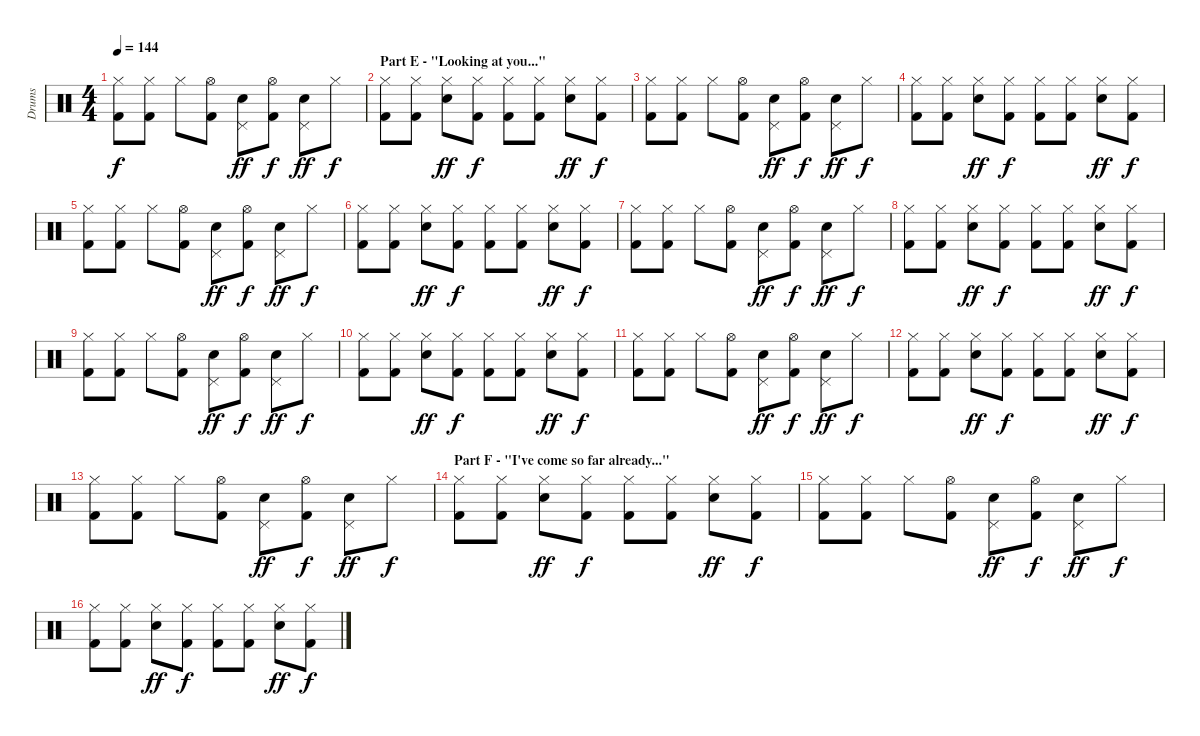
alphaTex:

\track ("Drums" "Drums") {instrument percussion}
\staff {score}
\articulation defaults
\ts (4 4)
\tempo 144
\clef neutral
\ks c
("Hi-Hat (closed)" "Kick (hit) 2").8{dy f} ("Hi-Hat (closed)" "Kick (hit) 2").8 "Hi-Hat (closed)".8 ("Hi-Hat (open)" "Kick (hit) 2").8 ("Pedal Hi-Hat (hit)" "Electric Snare (hit)").8{dy ff} ("Hi-Hat (open)" "Kick (hit) 2").8{dy f} ("Pedal Hi-Hat (hit)" "Electric Snare (hit)").8{dy ff} "Hi-Hat (closed)".8{dy f} |
\section ("" "Part E - \"Looking at you...\"")
("Hi-Hat (closed)" "Kick (hit) 2").8 ("Hi-Hat (closed)" "Kick (hit) 2").8 ("Hi-Hat (closed)" "Electric Snare (hit)").8{dy ff} ("Hi-Hat (closed)" "Kick (hit) 2").8{dy f} ("Hi-Hat (closed)" "Kick (hit) 2").8 ("Hi-Hat (closed)" "Kick (hit) 2").8 ("Hi-Hat (closed)" "Electric Snare (hit)").8{dy ff} ("Hi-Hat (closed)" "Kick (hit) 2").8{dy f} |
("Hi-Hat (closed)" "Kick (hit) 2").8 ("Hi-Hat (closed)" "Kick (hit) 2").8 "Hi-Hat (closed)".8 ("Hi-Hat (open)" "Kick (hit) 2").8 ("Pedal Hi-Hat (hit)" "Electric Snare (hit)").8{dy ff} ("Hi-Hat (open)" "Kick (hit) 2").8{dy f} ("Pedal Hi-Hat (hit)" "Electric Snare (hit)").8{dy ff} "Hi-Hat (closed)".8{dy f} |
("Hi-Hat (closed)" "Kick (hit) 2").8 ("Hi-Hat (closed)" "Kick (hit) 2").8 ("Hi-Hat (closed)" "Electric Snare (hit)").8{dy ff} ("Hi-Hat (closed)" "Kick (hit) 2").8{dy f} ("Hi-Hat (closed)" "Kick (hit) 2").8 ("Hi-Hat (closed)" "Kick (hit) 2").8 ("Hi-Hat (closed)" "Electric Snare (hit)").8{dy ff} ("Hi-Hat (closed)" "Kick (hit) 2").8{dy f} |
("Hi-Hat (closed)" "Kick (hit) 2").8 ("Hi-Hat (closed)" "Kick (hit) 2").8 "Hi-Hat (closed)".8 ("Hi-Hat (open)" "Kick (hit) 2").8 ("Pedal Hi-Hat (hit)" "Electric Snare (hit)").8{dy ff} ("Hi-Hat (open)" "Kick (hit) 2").8{dy f} ("Pedal Hi-Hat (hit)" "Electric Snare (hit)").8{dy ff} "Hi-Hat (closed)".8{dy f} |
("Hi-Hat (closed)" "Kick (hit) 2").8 ("Hi-Hat (closed)" "Kick (hit) 2").8 ("Hi-Hat (closed)" "Electric Snare (hit)").8{dy ff} ("Hi-Hat (closed)" "Kick (hit) 2").8{dy f} ("Hi-Hat (closed)" "Kick (hit) 2").8 ("Hi-Hat (closed)" "Kick (hit) 2").8 ("Hi-Hat (closed)" "Electric Snare (hit)").8{dy ff} ("Hi-Hat (closed)" "Kick (hit) 2").8{dy f} |
("Hi-Hat (closed)" "Kick (hit) 2").8 ("Hi-Hat (closed)" "Kick (hit) 2").8 "Hi-Hat (closed)".8 ("Hi-Hat (open)" "Kick (hit) 2").8 ("Pedal Hi-Hat (hit)" "Electric Snare (hit)").8{dy ff} ("Hi-Hat (open)" "Kick (hit) 2").8{dy f} ("Pedal Hi-Hat (hit)" "Electric Snare (hit)").8{dy ff} "Hi-Hat (closed)".8{dy f} |
("Hi-Hat (closed)" "Kick (hit) 2").8 ("Hi-Hat (closed)" "Kick (hit) 2").8 ("Hi-Hat (closed)" "Electric Snare (hit)").8{dy ff} ("Hi-Hat (closed)" "Kick (hit) 2").8{dy f} ("Hi-Hat (closed)" "Kick (hit) 2").8 ("Hi-Hat (closed)" "Kick (hit) 2").8 ("Hi-Hat (closed)" "Electric Snare (hit)").8{dy ff} ("Hi-Hat (closed)" "Kick (hit) 2").8{dy f} |
("Hi-Hat (closed)" "Kick (hit) 2").8 ("Hi-Hat (closed)" "Kick (hit) 2").8 "Hi-Hat (closed)".8 ("Hi-Hat (open)" "Kick (hit) 2").8 ("Pedal Hi-Hat (hit)" "Electric Snare (hit)").8{dy ff} ("Hi-Hat (open)" "Kick (hit) 2").8{dy f} ("Pedal Hi-Hat (hit)" "Electric Snare (hit)").8{dy ff} "Hi-Hat (closed)".8{dy f} |
("Hi-Hat (closed)" "Kick (hit) 2").8 ("Hi-Hat (closed)" "Kick (hit) 2").8 ("Hi-Hat (closed)" "Electric Snare (hit)").8{dy ff} ("Hi-Hat (closed)" "Kick (hit) 2").8{dy f} ("Hi-Hat (closed)" "Kick (hit) 2").8 ("Hi-Hat (closed)" "Kick (hit) 2").8 ("Hi-Hat (closed)" "Electric Snare (hit)").8{dy ff} ("Hi-Hat (closed)" "Kick (hit) 2").8{dy f} |
("Hi-Hat (closed)" "Kick (hit) 2").8 ("Hi-Hat (closed)" "Kick (hit) 2").8 "Hi-Hat (closed)".8 ("Hi-Hat (open)" "Kick (hit) 2").8 ("Pedal Hi-Hat (hit)" "Electric Snare (hit)").8{dy ff} ("Hi-Hat (open)" "Kick (hit) 2").8{dy f} ("Pedal Hi-Hat (hit)" "Electric Snare (hit)").8{dy ff} "Hi-Hat (closed)".8{dy f} |
("Hi-Hat (closed)" "Kick (hit) 2").8 ("Hi-Hat (closed)" "Kick (hit) 2").8 ("Hi-Hat (closed)" "Electric Snare (hit)").8{dy ff} ("Hi-Hat (closed)" "Kick (hit) 2").8{dy f} ("Hi-Hat (closed)" "Kick (hit) 2").8 ("Hi-Hat (closed)" "Kick (hit) 2").8 ("Hi-Hat (closed)" "Electric Snare (hit)").8{dy ff} ("Hi-Hat (closed)" "Kick (hit) 2").8{dy f} |
("Hi-Hat (closed)" "Kick (hit) 2").8 ("Hi-Hat (closed)" "Kick (hit) 2").8 "Hi-Hat (closed)".8 ("Hi-Hat (open)" "Kick (hit) 2").8 ("Pedal Hi-Hat (hit)" "Electric Snare (hit)").8{dy ff} ("Hi-Hat (open)" "Kick (hit) 2").8{dy f} ("Pedal Hi-Hat (hit)" "Electric Snare (hit)").8{dy ff} "Hi-Hat (closed)".8{dy f} |
\section ("" "Part F - \"I've come so far already...\"")
("Hi-Hat (closed)" "Kick (hit) 2").8 ("Hi-Hat (closed)" "Kick (hit) 2").8 ("Hi-Hat (closed)" "Electric Snare (hit)").8{dy ff} ("Hi-Hat (closed)" "Kick (hit) 2").8{dy f} ("Hi-Hat (closed)" "Kick (hit) 2").8 ("Hi-Hat (closed)" "Kick (hit) 2").8 ("Hi-Hat (closed)" "Electric Snare (hit)").8{dy ff} ("Hi-Hat (closed)" "Kick (hit) 2").8{dy f} |
("Hi-Hat (closed)" "Kick (hit) 2").8 ("Hi-Hat (closed)" "Kick (hit) 2").8 "Hi-Hat (closed)".8 ("Hi-Hat (open)" "Kick (hit) 2").8 ("Pedal Hi-Hat (hit)" "Electric Snare (hit)").8{dy ff} ("Hi-Hat (open)" "Kick (hit) 2").8{dy f} ("Pedal Hi-Hat (hit)" "Electric Snare (hit)").8{dy ff} "Hi-Hat (closed)".8{dy f} |
("Hi-Hat (closed)" "Kick (hit) 2").8 ("Hi-Hat (closed)" "Kick (hit) 2").8 ("Hi-Hat (closed)" "Electric Snare (hit)").8{dy ff} ("Hi-Hat (closed)" "Kick (hit) 2").8{dy f} ("Hi-Hat (closed)" "Kick (hit) 2").8 ("Hi-Hat (closed)" "Kick (hit) 2").8 ("Hi-Hat (closed)" "Electric Snare (hit)").8{dy ff} ("Hi-Hat (closed)" "Kick (hit) 2").8{dy f}
